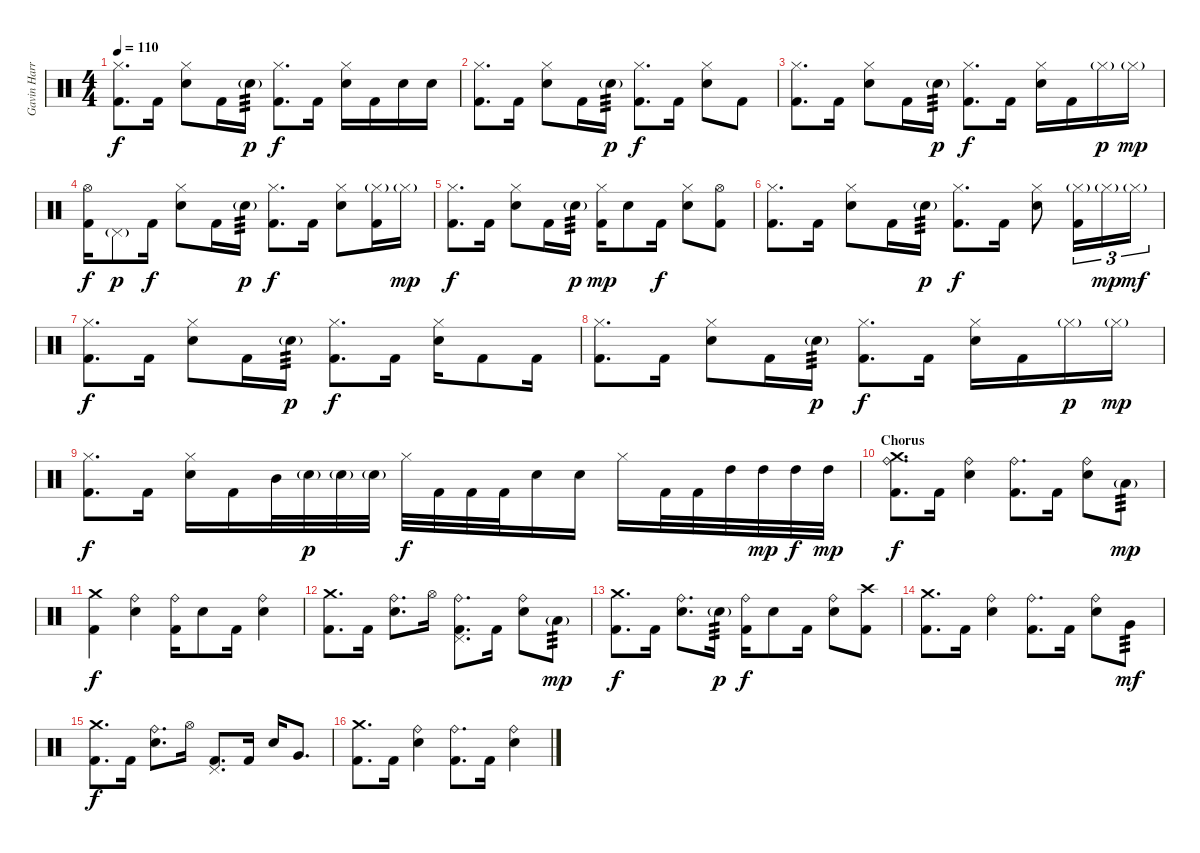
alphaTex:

\track ("Gavin Harrison - Drums" "Gavin Harr") {instrument percussion}
\staff {score}
\articulation defaults
\ts (4 4)
\tempo 110
\clef neutral
\ks c
("Hi-Hat (closed)" "Kick (hit) 2").8{d dy f} "Kick (hit) 2".16 ("Hi-Hat (closed)" "Electric Snare (hit)").8 "Kick (hit) 2".16 "Electric Snare (hit)"{g}.16{tp 3 dy p} ("Hi-Hat (closed)" "Kick (hit) 2").8{d dy f} "Kick (hit) 2".16 ("Hi-Hat (closed)" "Electric Snare (hit)").16 "Kick (hit) 2".16 "Electric Snare (hit)".16 "Electric Snare (hit)".16 |
("Hi-Hat (closed)" "Kick (hit) 2").8{d} "Kick (hit) 2".16 ("Hi-Hat (closed)" "Electric Snare (hit)").8 "Kick (hit) 2".16 "Electric Snare (hit)"{g}.16{tp 3 dy p} ("Hi-Hat (closed)" "Kick (hit) 2").8{d dy f} "Kick (hit) 2".16 ("Hi-Hat (closed)" "Electric Snare (hit)").8 "Kick (hit) 2".8 |
("Hi-Hat (closed)" "Kick (hit) 2").8{d} "Kick (hit) 2".16 ("Hi-Hat (closed)" "Electric Snare (hit)").8 "Kick (hit) 2".16 "Electric Snare (hit)"{g}.16{tp 3 dy p} ("Hi-Hat (closed)" "Kick (hit) 2").8{d dy f} "Kick (hit) 2".16 ("Hi-Hat (closed)" "Electric Snare (hit)").16 "Kick (hit) 2".16 "Hi-Hat (closed)"{g}.16{dy p} "Hi-Hat (closed)"{g}.16{dy mp} |
("Hi-Hat (open)" "Kick (hit) 2").16{dy f} "Pedal Hi-Hat (hit)"{g}.8{dy p} "Kick (hit) 2".16{dy f} ("Hi-Hat (closed)" "Electric Snare (hit)").8 "Kick (hit) 2".16 "Electric Snare (hit)"{g}.16{tp 3 dy p} ("Hi-Hat (closed)" "Kick (hit) 2").8{d dy f} "Kick (hit) 2".16 ("Hi-Hat (closed)" "Electric Snare (hit)").8 ("Hi-Hat (closed)"{g} "Kick (hit) 2").16 "Hi-Hat (closed)"{g}.16{dy mp} |
("Hi-Hat (closed)" "Kick (hit) 2").8{d dy f} "Kick (hit) 2".16 ("Hi-Hat (closed)" "Electric Snare (hit)").8 "Kick (hit) 2".16 "Electric Snare (hit)"{g}.16{tp 3 dy p} ("Hi-Hat (closed)" "Kick (hit) 2").16{dy mp} "Electric Snare (hit)".8 "Kick (hit) 2".16{dy f} ("Hi-Hat (closed)" "Electric Snare (hit)").8 ("Hi-Hat (open)" "Kick (hit) 2").8 |
("Hi-Hat (closed)" "Kick (hit) 2").8{d} "Kick (hit) 2".16 ("Hi-Hat (closed)" "Electric Snare (hit)").8 "Kick (hit) 2".16 "Electric Snare (hit)"{g}.16{tp 3 dy p} ("Hi-Hat (closed)" "Kick (hit) 2").8{d dy f} "Kick (hit) 2".16 ("Hi-Hat (closed)" "Electric Snare (hit)").8 ("Hi-Hat (closed)"{g} "Kick (hit) 2").16{tu (3 2)} "Hi-Hat (closed)"{g}.16{tu (3 2) dy mp} "Hi-Hat (closed)"{g}.16{tu (3 2) dy mf} |
("Hi-Hat (closed)" "Kick (hit) 2").8{d dy f} "Kick (hit) 2".16 ("Hi-Hat (closed)" "Electric Snare (hit)").8 "Kick (hit) 2".16 "Electric Snare (hit)"{g}.16{tp 3 dy p} ("Hi-Hat (closed)" "Kick (hit) 2").8{d dy f} "Kick (hit) 2".16 ("Hi-Hat (closed)" "Electric Snare (hit)").16 "Kick (hit) 2".8 "Kick (hit) 2".16 |
("Hi-Hat (closed)" "Kick (hit) 2").8{d} "Kick (hit) 2".16 ("Hi-Hat (closed)" "Electric Snare (hit)").8 "Kick (hit) 2".16 "Electric Snare (hit)"{g}.16{tp 3 dy p} ("Hi-Hat (closed)" "Kick (hit) 2").8{d dy f} "Kick (hit) 2".16 ("Hi-Hat (closed)" "Electric Snare (hit)").16 "Kick (hit) 2".16 "Hi-Hat (closed)"{g}.16{dy p} "Hi-Hat (closed)"{g}.16{dy mp} |
("Hi-Hat (closed)" "Kick (hit) 2").8{d dy f} "Kick (hit) 2".16 ("Hi-Hat (closed)" "Electric Snare (hit)").16 "Kick (hit) 2".16 "Mid Tom (hit)".32 "Electric Snare (hit)"{g}.32{dy p} "Electric Snare (hit)"{g}.32 "Electric Snare (hit)"{g}.32 "Hi-Hat (closed)".32{dy f} "Kick (hit) 2".32 "Kick (hit) 2".32 "Kick (hit) 2".32 "Electric Snare (hit)".16 "Electric Snare (hit)".16 "Hi-Hat (closed)".16 "Kick (hit) 2".32 "Kick (hit) 2".32 "High Tom (hit)".32 "High Tom (hit)".32{dy mp} "High Tom (hit)".32{dy f} "High Tom (hit)".32{dy mp} |
\section ("" "Chorus")
("Ride (bell)" "Crash medium (hit)" "Kick (hit) 2").8{d dy f} "Kick (hit) 2".16 ("Ride (bell)" "Electric Snare (hit)").4 ("Ride (bell)" "Kick (hit) 2").8{d} "Kick (hit) 2".16 ("Ride (bell)" "Electric Snare (hit)").8 "Low Floor Tom (hit)"{g}.8{tp 3 dy mp} |
("Crash medium (hit)" "Kick (hit) 2").4{dy f} ("Ride (bell)" "Electric Snare (hit)").4 ("Ride (bell)" "Kick (hit) 2").16 "Electric Snare (hit)".8 "Kick (hit) 2".16 ("Ride (bell)" "Electric Snare (hit)").4 |
("Crash medium (hit)" "Kick (hit) 2").8{d} "Kick (hit) 2".16 ("Ride (bell)" "Electric Snare (hit)").8{d} "Hi-Hat (open)".16 ("Ride (bell)" "Pedal Hi-Hat (hit)" "Kick (hit) 2").8{d} "Kick (hit) 2".16 ("Ride (bell)" "Electric Snare (hit)").8 "Low Floor Tom (hit)"{g}.8{tp 3 dy mp} |
("Crash medium (hit)" "Kick (hit) 2").8{d dy f} "Kick (hit) 2".16 ("Ride (bell)" "Electric Snare (hit)").8{d} "Electric Snare (hit)"{g}.16{tp 3 dy p} ("Ride (bell)" "Kick (hit) 2").16{dy f} "Electric Snare (hit)".8 "Kick (hit) 2".16 ("Ride (bell)" "Electric Snare (hit)").8 ("Crash high (hit)" "Kick (hit) 2").8 |
("Crash medium (hit)" "Kick (hit) 2").8{d} "Kick (hit) 2".16 ("Ride (bell)" "Electric Snare (hit)").4 ("Ride (bell)" "Kick (hit) 2").8{d} "Kick (hit) 2".16 ("Ride (bell)" "Electric Snare (hit)").8 "Very Low Tom (hit)".8{tp 3 dy mf} |
("Crash medium (hit)" "Kick (hit) 2").8{d dy f} "Kick (hit) 2".16 ("Ride (bell)" "Electric Snare (hit)").8{d} "Hi-Hat (open)".16 ("Pedal Hi-Hat (hit)" "Kick (hit) 2").8{d} "Kick (hit) 2".16 "Electric Snare (hit)".16 "Very Low Tom (hit)".8{d} |
("Crash medium (hit)" "Kick (hit) 2").8{d} "Kick (hit) 2".16 ("Ride (bell)" "Electric Snare (hit)").4 ("Ride (bell)" "Kick (hit) 2").8{d} "Kick (hit) 2".16 ("Ride (bell)" "Electric Snare (hit)").4
